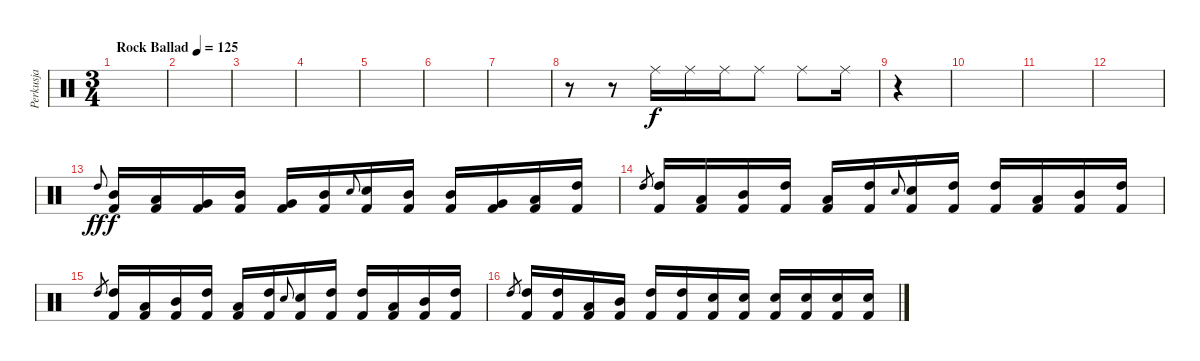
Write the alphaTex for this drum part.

\track ("Perkusja" "Perkusja") {instrument percussion}
\staff {score}
\articulation defaults
\ts (3 4)
\tempo (125 "Rock Ballad")
\clef neutral
\ks c
|
|
|
|
|
|
|
r.8 r.8 "Ride (middle)".16 "Ride (middle)".16 "Ride (middle)".16 "Ride (middle)".8 "Ride (middle)".8 "Ride (middle)".16 |
r.4 |
|
|
|
"High Tom (hit)".8{gr onbeat dy ff} ("Kick (hit) 2" "Mid Tom (hit)").16{dy f} ("Kick (hit) 2" "Low Tom (hit)").16 ("Kick (hit) 2" "Very Low Tom (hit)").16 ("Kick (hit) 2" "Mid Tom (hit)").16 ("Kick (hit) 2" "Very Low Tom (hit)").16 ("Kick (hit) 2" "Mid Tom (hit)").16 "Electric Snare (hit)".8{gr onbeat} ("Kick (hit) 2" "Electric Snare (hit)").16 ("Kick (hit) 2" "Mid Tom (hit)").16 ("Kick (hit) 2" "Mid Tom (hit)").16 ("Kick (hit) 2" "Very Low Tom (hit)").16 ("Kick (hit) 2" "Low Tom (hit)").16 ("Kick (hit) 2" "High Tom (hit)").16 |
"High Tom (hit)".8{gr} ("Kick (hit) 2" "High Tom (hit)").16 ("Kick (hit) 2" "Low Tom (hit)").16 ("Kick (hit) 2" "Mid Tom (hit)").16 ("Kick (hit) 2" "High Tom (hit)").16 ("Kick (hit) 2" "Low Tom (hit)").16 ("Kick (hit) 2" "High Tom (hit)").16 "Electric Snare (hit)".8{gr onbeat} ("Kick (hit) 2" "Electric Snare (hit)").16 ("Kick (hit) 2" "High Tom (hit)").16 ("Kick (hit) 2" "High Tom (hit)").16 ("Kick (hit) 2" "Low Tom (hit)").16 ("Kick (hit) 2" "Mid Tom (hit)").16 ("Kick (hit) 2" "High Tom (hit)").16 |
"High Tom (hit)".8{gr} ("Kick (hit) 2" "High Tom (hit)").16 ("Kick (hit) 2" "Low Tom (hit)").16 ("Kick (hit) 2" "Mid Tom (hit)").16 ("Kick (hit) 2" "High Tom (hit)").16 ("Kick (hit) 2" "Low Tom (hit)").16 ("Kick (hit) 2" "High Tom (hit)").16 "Electric Snare (hit)".8{gr onbeat} ("Kick (hit) 2" "Electric Snare (hit)").16 ("Kick (hit) 2" "High Tom (hit)").16 ("Kick (hit) 2" "High Tom (hit)").16 ("Kick (hit) 2" "Low Tom (hit)").16 ("Kick (hit) 2" "Mid Tom (hit)").16 ("Kick (hit) 2" "High Tom (hit)").16 |
"High Tom (hit)".8{gr} ("Kick (hit) 2" "High Tom (hit)").16 ("Kick (hit) 2" "High Tom (hit)").16 ("Kick (hit) 2" "Low Tom (hit)").16 ("Kick (hit) 2" "Mid Tom (hit)").16 ("Kick (hit) 2" "High Tom (hit)").16 ("Kick (hit) 2" "High Tom (hit)").16 ("Kick (hit) 2" "Electric Snare (hit)").16 ("Kick (hit) 2" "Electric Snare (hit)").16 ("Kick (hit) 2" "Electric Snare (hit)").16 ("Kick (hit) 2" "Electric Snare (hit)").16 ("Kick (hit) 2" "Electric Snare (hit)").16 ("Kick (hit) 2" "Electric Snare (hit)").16
